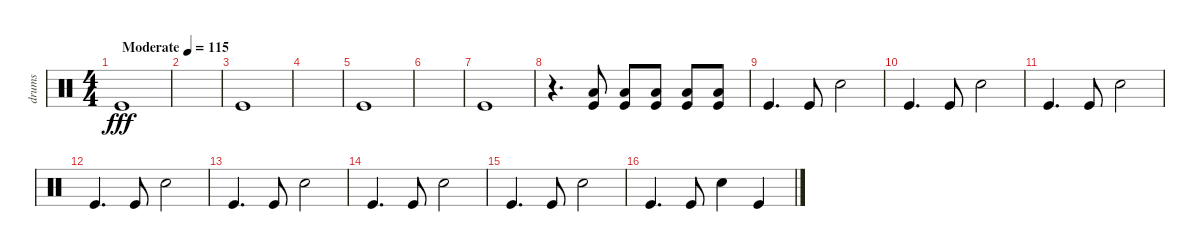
\track ("drums" "drums") {instrument percussion}
\staff {score}
\articulation defaults
\ts (4 4)
\tempo (115 "Moderate")
\clef neutral
\ks c "Kick (hit)".1{dy fff}
|
|
"Kick (hit)".1 |
|
"Kick (hit)".1 |
|
"Kick (hit)".1 |
r.4{d} ("Low Floor Tom (hit)" "Kick (hit)").8 ("Low Floor Tom (hit)" "Kick (hit)").8 ("Low Floor Tom (hit)" "Kick (hit)").8 ("Low Floor Tom (hit)" "Kick (hit)").8 ("Low Floor Tom (hit)" "Kick (hit)").8 |
"Kick (hit)".4{d} "Kick (hit)".8 "Electric Snare (hit)".2 |
"Kick (hit)".4{d} "Kick (hit)".8 "Electric Snare (hit)".2 |
"Kick (hit)".4{d} "Kick (hit)".8 "Electric Snare (hit)".2 |
"Kick (hit)".4{d} "Kick (hit)".8 "Electric Snare (hit)".2 |
"Kick (hit)".4{d} "Kick (hit)".8 "Electric Snare (hit)".2 |
"Kick (hit)".4{d} "Kick (hit)".8 "Electric Snare (hit)".2 |
"Kick (hit)".4{d} "Kick (hit)".8 "Electric Snare (hit)".2 |
"Kick (hit)".4{d} "Kick (hit)".8 "Electric Snare (hit)".4 "Kick (hit)".4
